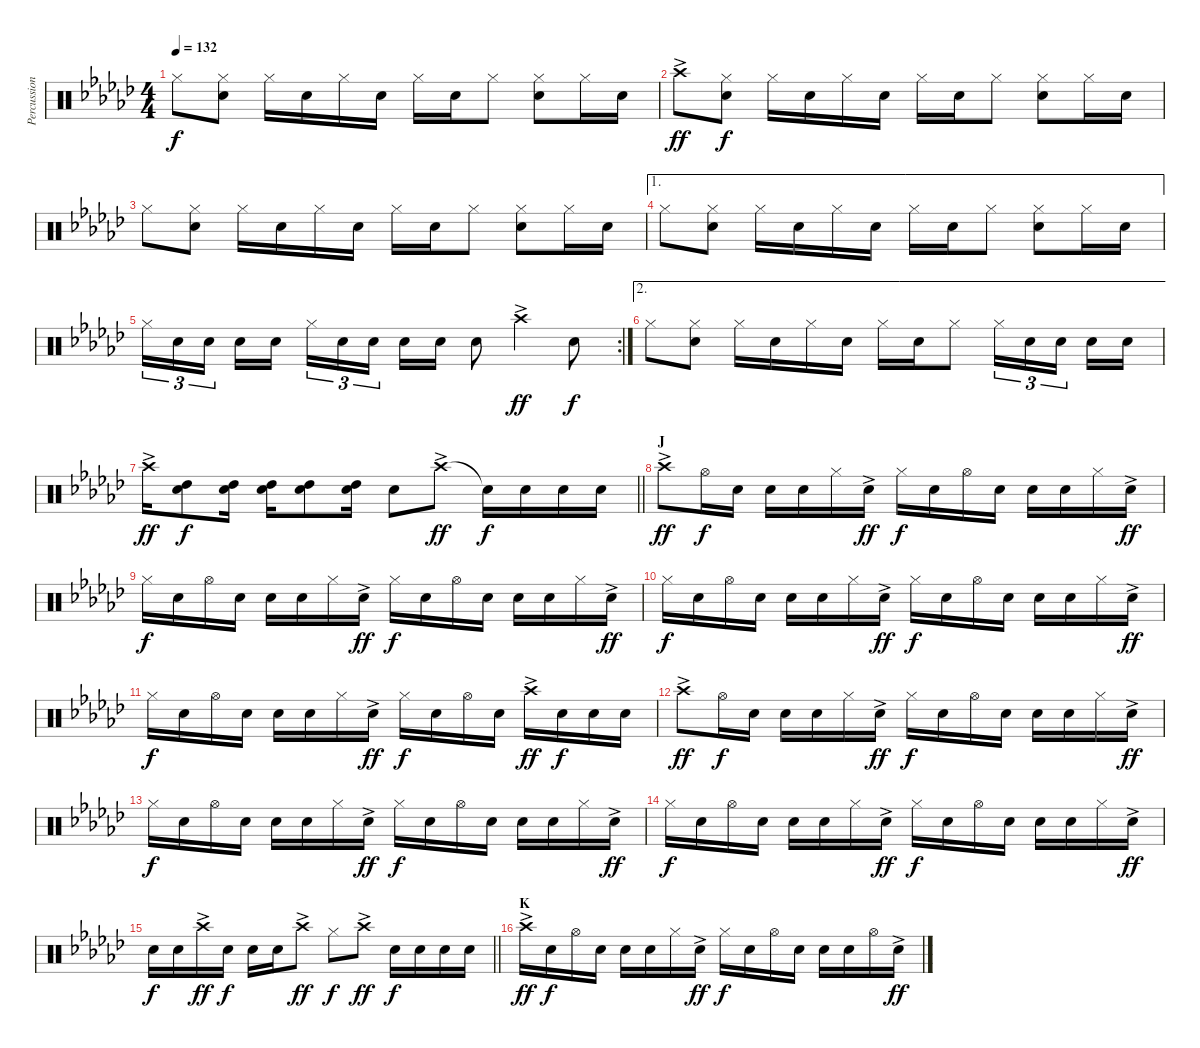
\track ("Percussion hand" "Percussion") {instrument percussion}
\staff {score}
\articulation defaults
\ts (4 4)
\tempo 132
\clef neutral
\ks gb "Hi-Hat (closed)".8{dy f}
("Hi-Hat (closed)" "Snare (hit) 2").8 "Hi-Hat (closed)".16 "Snare (hit) 2".16 "Hi-Hat (closed)".16 "Snare (hit) 2".16 "Hi-Hat (closed)".16 "Snare (hit) 2".16 "Hi-Hat (closed)".8 ("Hi-Hat (closed)" "Snare (hit) 2").8 "Hi-Hat (closed)".16 "Snare (hit) 2".16 |
"Crash high (hit)"{ac}.8{dy ff} ("Hi-Hat (closed)" "Snare (hit) 2").8{dy f} "Hi-Hat (closed)".16 "Snare (hit) 2".16 "Hi-Hat (closed)".16 "Snare (hit) 2".16 "Hi-Hat (closed)".16 "Snare (hit) 2".16 "Hi-Hat (closed)".8 ("Hi-Hat (closed)" "Snare (hit) 2").8 "Hi-Hat (closed)".16 "Snare (hit) 2".16 |
"Hi-Hat (closed)".8 ("Hi-Hat (closed)" "Snare (hit) 2").8 "Hi-Hat (closed)".16 "Snare (hit) 2".16 "Hi-Hat (closed)".16 "Snare (hit) 2".16 "Hi-Hat (closed)".16 "Snare (hit) 2".16 "Hi-Hat (closed)".8 ("Hi-Hat (closed)" "Snare (hit) 2").8 "Hi-Hat (closed)".16 "Snare (hit) 2".16 |
\ae 1 "Hi-Hat (closed)".8
("Hi-Hat (closed)" "Snare (hit) 2").8 "Hi-Hat (closed)".16 "Snare (hit) 2".16 "Hi-Hat (closed)".16 "Snare (hit) 2".16 "Hi-Hat (closed)".16 "Snare (hit) 2".16 "Hi-Hat (closed)".8 ("Hi-Hat (closed)" "Snare (hit) 2").8 "Hi-Hat (closed)".16 "Snare (hit) 2".16 |
\rc 2 "Hi-Hat (closed)".16{tu (3 2)} "Snare (hit) 2".16{tu (3 2)} "Snare (hit) 2".16{tu (3 2) beam splitsecondary} "Snare (hit) 2".16 "Snare (hit) 2".16 "Hi-Hat (closed)".16{tu (3 2)} "Snare (hit) 2".16{tu (3 2)} "Snare (hit) 2".16{tu (3 2) beam splitsecondary} "Snare (hit) 2".16 "Snare (hit) 2".16 "Snare (hit) 2".8 "Crash high (hit)"{ac}.4{dy ff} "Snare (hit) 2".8{dy f}
|
\ae 2 "Hi-Hat (closed)".8
("Snare (hit) 2" "Hi-Hat (closed)").8 "Hi-Hat (closed)".16 "Snare (hit) 2".16 "Hi-Hat (closed)".16 "Snare (hit) 2".16 "Hi-Hat (closed)".16 "Snare (hit) 2".16 "Hi-Hat (closed)".8 "Hi-Hat (closed)".16{tu (3 2)} "Snare (hit) 2".16{tu (3 2)} "Snare (hit) 2".16{tu (3 2) beam splitsecondary} "Snare (hit) 2".16 "Snare (hit) 2".16 |
\barLineRight lightlight "Crash high (hit)"{ac}.16{dy ff}
("High Tom (hit)" "Snare (hit) 2").8{dy f} ("High Tom (hit)" "Snare (hit) 2").16 ("High Tom (hit)" "Snare (hit) 2").16 ("High Tom (hit)" "Snare (hit) 2").8 ("High Tom (hit)" "Snare (hit) 2").16 "Snare (hit) 2".8 "Crash high (hit)"{ac}.8{dy ff} "Snare (hit)"{t}.16{dy f} "Snare (hit) 2".16 "Snare (hit) 2".16 "Snare (hit) 2".16 |
\section ("" "J")
"Crash high (hit)"{ac}.8{dy ff} "Hi-Hat (open)".16{dy f} "Snare (hit) 2".16 "Snare (hit) 2".16 "Snare (hit) 2".16 "Hi-Hat (closed)".16 "Snare (hit) 2"{ac}.16{dy ff} "Hi-Hat (closed)".16{dy f} "Snare (hit) 2".16 "Hi-Hat (open)".16 "Snare (hit) 2".16 "Snare (hit) 2".16 "Snare (hit) 2".16 "Hi-Hat (closed)".16 "Snare (hit) 2"{ac}.16{dy ff} |
"Hi-Hat (closed)".16{dy f} "Snare (hit) 2".16 "Hi-Hat (open)".16 "Snare (hit) 2".16 "Snare (hit) 2".16 "Snare (hit) 2".16 "Hi-Hat (closed)".16 "Snare (hit) 2"{ac}.16{dy ff} "Hi-Hat (closed)".16{dy f} "Snare (hit) 2".16 "Hi-Hat (open)".16 "Snare (hit) 2".16 "Snare (hit) 2".16 "Snare (hit) 2".16 "Hi-Hat (closed)".16 "Snare (hit) 2"{ac}.16{dy ff} |
"Hi-Hat (closed)".16{dy f} "Snare (hit) 2".16 "Hi-Hat (open)".16 "Snare (hit) 2".16 "Snare (hit) 2".16 "Snare (hit) 2".16 "Hi-Hat (closed)".16 "Snare (hit) 2"{ac}.16{dy ff} "Hi-Hat (closed)".16{dy f} "Snare (hit) 2".16 "Hi-Hat (open)".16 "Snare (hit) 2".16 "Snare (hit) 2".16 "Snare (hit) 2".16 "Hi-Hat (closed)".16 "Snare (hit) 2"{ac}.16{dy ff} |
"Hi-Hat (closed)".16{dy f} "Snare (hit) 2".16 "Hi-Hat (open)".16 "Snare (hit) 2".16 "Snare (hit) 2".16 "Snare (hit) 2".16 "Hi-Hat (closed)".16 "Snare (hit) 2"{ac}.16{dy ff} "Hi-Hat (closed)".16{dy f} "Snare (hit) 2".16 "Hi-Hat (open)".16 "Snare (hit) 2".16 "Crash high (hit)"{ac}.16{dy ff} "Snare (hit) 2".16{dy f} "Snare (hit) 2".16 "Snare (hit) 2".16 |
"Crash high (hit)"{ac}.8{dy ff} "Hi-Hat (open)".16{dy f} "Snare (hit) 2".16 "Snare (hit) 2".16 "Snare (hit) 2".16 "Hi-Hat (closed)".16 "Snare (hit) 2"{ac}.16{dy ff} "Hi-Hat (closed)".16{dy f} "Snare (hit) 2".16 "Hi-Hat (open)".16 "Snare (hit) 2".16 "Snare (hit) 2".16 "Snare (hit) 2".16 "Hi-Hat (closed)".16 "Snare (hit) 2"{ac}.16{dy ff} |
"Hi-Hat (closed)".16{dy f} "Snare (hit) 2".16 "Hi-Hat (open)".16 "Snare (hit) 2".16 "Snare (hit) 2".16 "Snare (hit) 2".16 "Hi-Hat (closed)".16 "Snare (hit) 2"{ac}.16{dy ff} "Hi-Hat (closed)".16{dy f} "Snare (hit) 2".16 "Hi-Hat (open)".16 "Snare (hit) 2".16 "Snare (hit) 2".16 "Snare (hit) 2".16 "Hi-Hat (closed)".16 "Snare (hit) 2"{ac}.16{dy ff} |
"Hi-Hat (closed)".16{dy f} "Snare (hit) 2".16 "Hi-Hat (open)".16 "Snare (hit) 2".16 "Snare (hit) 2".16 "Snare (hit) 2".16 "Hi-Hat (closed)".16 "Snare (hit) 2"{ac}.16{dy ff} "Hi-Hat (closed)".16{dy f} "Snare (hit) 2".16 "Hi-Hat (open)".16 "Snare (hit) 2".16 "Snare (hit) 2".16 "Snare (hit) 2".16 "Hi-Hat (closed)".16 "Snare (hit) 2"{ac}.16{dy ff} |
\barLineRight lightlight "Snare (hit) 2".16{dy f} "Snare (hit) 2".16 "Crash high (hit)"{ac}.16{dy ff} "Snare (hit) 2".16{dy f} "Snare (hit) 2".16 "Snare (hit) 2".16 "Crash high (hit)"{ac}.8{dy ff} "Hi-Hat (closed)".8{dy f} "Crash high (hit)"{ac}.8{dy ff} "Snare (hit) 2".16{dy f} "Snare (hit) 2".16 "Snare (hit) 2".16 "Snare (hit) 2".16
|
\section ("" "K")
"Crash high (hit)"{ac}.16{dy ff} "Snare (hit) 2".16{dy f} "Hi-Hat (open)".16 "Snare (hit) 2".16 "Snare (hit) 2".16 "Snare (hit) 2".16 "Hi-Hat (closed)".16 "Snare (hit) 2"{ac}.16{dy ff} "Hi-Hat (closed)".16{dy f} "Snare (hit) 2".16 "Hi-Hat (open)".16 "Snare (hit) 2".16 "Snare (hit) 2".16 "Snare (hit) 2".16 "Hi-Hat (open)".16 "Snare (hit) 2"{ac}.16{dy ff}
